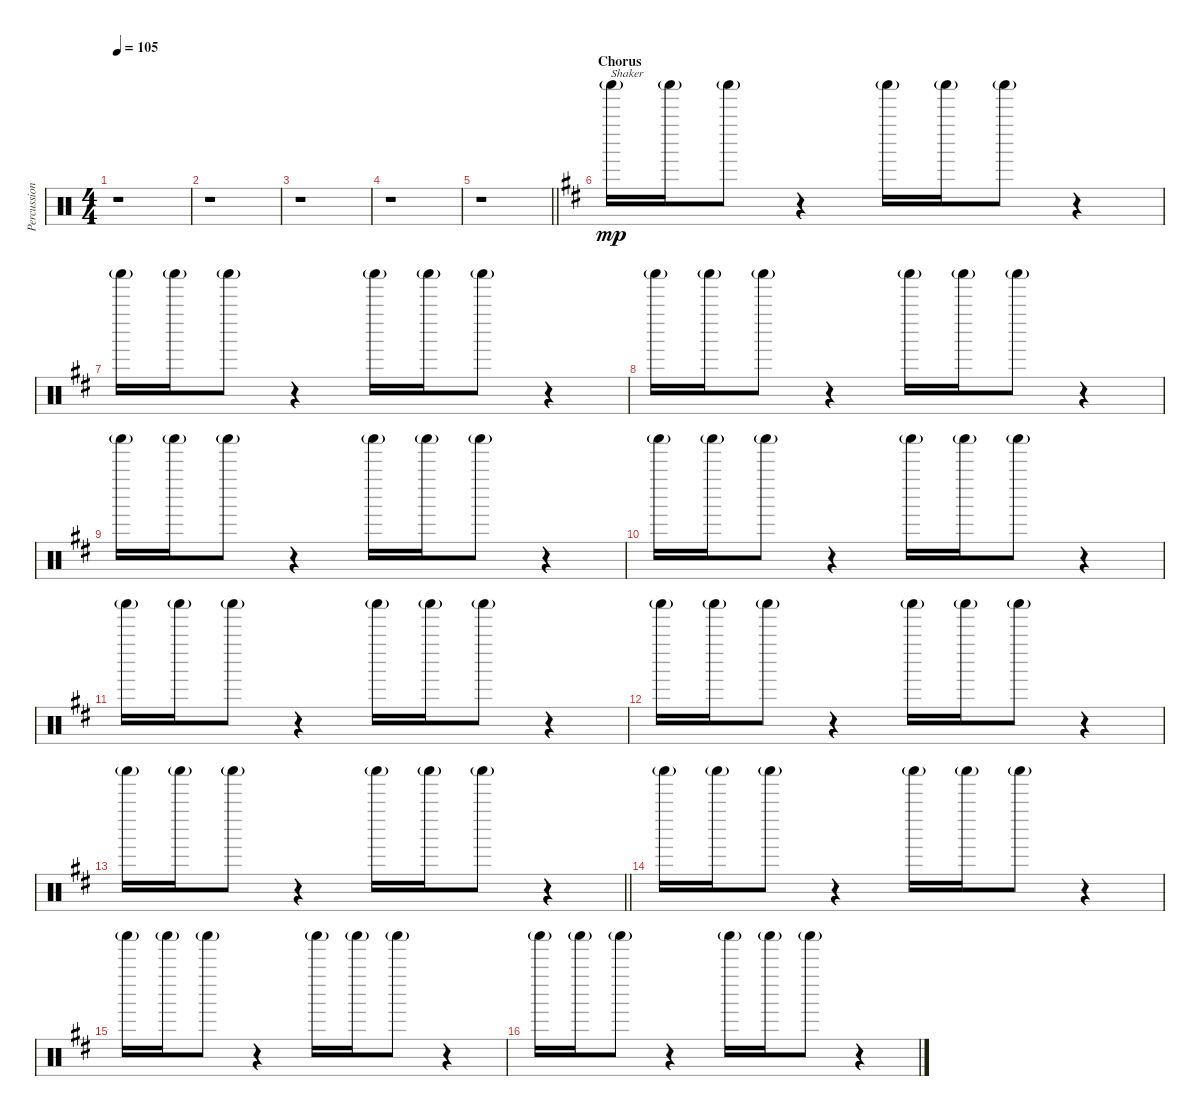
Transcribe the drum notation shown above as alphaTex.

\track ("Percussion" "Percussion") {instrument percussion}
\staff {score}
\articulation defaults
\ts (4 4)
\tempo 105
\clef neutral
\ks aminor
r.1{dy mp} |
r.1 |
r.1 |
r.1 |
\barLineRight lightlight
r.1 |
\section ("" "Chorus")
\ks bminor "Shaker (hit)"{g}.16{txt "Shaker"} "Shaker (hit)"{g}.16 "Shaker (hit)"{g}.8
r.4 "Shaker (hit)"{g}.16 "Shaker (hit)"{g}.16 "Shaker (hit)"{g}.8 r.4 |
"Shaker (hit)"{g}.16 "Shaker (hit)"{g}.16 "Shaker (hit)"{g}.8 r.4 "Shaker (hit)"{g}.16 "Shaker (hit)"{g}.16 "Shaker (hit)"{g}.8 r.4 |
"Shaker (hit)"{g}.16 "Shaker (hit)"{g}.16 "Shaker (hit)"{g}.8 r.4 "Shaker (hit)"{g}.16 "Shaker (hit)"{g}.16 "Shaker (hit)"{g}.8 r.4 |
"Shaker (hit)"{g}.16 "Shaker (hit)"{g}.16 "Shaker (hit)"{g}.8 r.4 "Shaker (hit)"{g}.16 "Shaker (hit)"{g}.16 "Shaker (hit)"{g}.8 r.4 |
"Shaker (hit)"{g}.16 "Shaker (hit)"{g}.16 "Shaker (hit)"{g}.8 r.4 "Shaker (hit)"{g}.16 "Shaker (hit)"{g}.16 "Shaker (hit)"{g}.8 r.4 |
"Shaker (hit)"{g}.16 "Shaker (hit)"{g}.16 "Shaker (hit)"{g}.8 r.4 "Shaker (hit)"{g}.16 "Shaker (hit)"{g}.16 "Shaker (hit)"{g}.8 r.4 |
"Shaker (hit)"{g}.16 "Shaker (hit)"{g}.16 "Shaker (hit)"{g}.8 r.4 "Shaker (hit)"{g}.16 "Shaker (hit)"{g}.16 "Shaker (hit)"{g}.8 r.4 |
\barLineRight lightlight "Shaker (hit)"{g}.16 "Shaker (hit)"{g}.16 "Shaker (hit)"{g}.8
r.4 "Shaker (hit)"{g}.16 "Shaker (hit)"{g}.16 "Shaker (hit)"{g}.8 r.4 |
\section ("" "")
"Shaker (hit)"{g}.16 "Shaker (hit)"{g}.16 "Shaker (hit)"{g}.8 r.4 "Shaker (hit)"{g}.16 "Shaker (hit)"{g}.16 "Shaker (hit)"{g}.8 r.4 |
"Shaker (hit)"{g}.16 "Shaker (hit)"{g}.16 "Shaker (hit)"{g}.8 r.4 "Shaker (hit)"{g}.16 "Shaker (hit)"{g}.16 "Shaker (hit)"{g}.8 r.4 |
"Shaker (hit)"{g}.16 "Shaker (hit)"{g}.16 "Shaker (hit)"{g}.8 r.4 "Shaker (hit)"{g}.16 "Shaker (hit)"{g}.16 "Shaker (hit)"{g}.8 r.4
